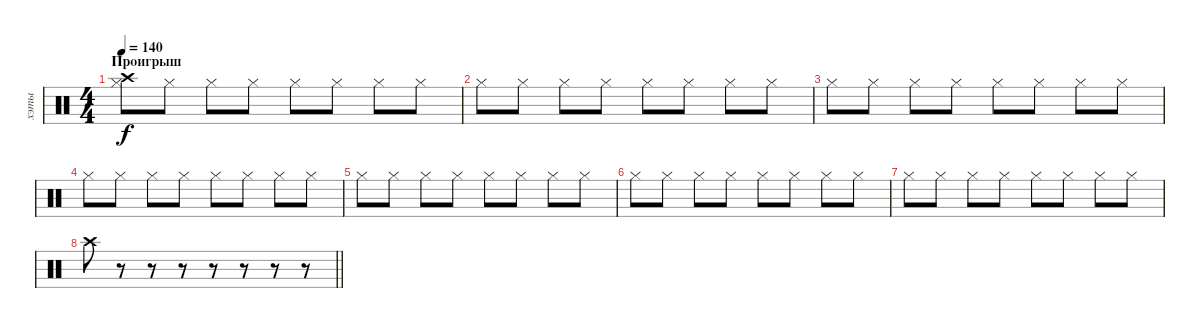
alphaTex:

\track ("хэты" "хэты") {instrument percussion}
\staff {score}
\articulation defaults
\ts (4 4)
\section ("" "Проигрыш")
\tempo 140
\clef neutral
\ks c
("Hi-Hat (closed)" "Crash high (hit)").8{dy f} "Hi-Hat (closed)".8 "Hi-Hat (closed)".8 "Hi-Hat (closed)".8 "Hi-Hat (closed)".8 "Hi-Hat (closed)".8 "Hi-Hat (closed)".8 "Hi-Hat (closed)".8 |
"Hi-Hat (closed)".8 "Hi-Hat (closed)".8 "Hi-Hat (closed)".8 "Hi-Hat (closed)".8 "Hi-Hat (closed)".8 "Hi-Hat (closed)".8 "Hi-Hat (closed)".8 "Hi-Hat (closed)".8 |
"Hi-Hat (closed)".8 "Hi-Hat (closed)".8 "Hi-Hat (closed)".8 "Hi-Hat (closed)".8 "Hi-Hat (closed)".8 "Hi-Hat (closed)".8 "Hi-Hat (closed)".8 "Hi-Hat (closed)".8 |
"Hi-Hat (closed)".8 "Hi-Hat (closed)".8 "Hi-Hat (closed)".8 "Hi-Hat (closed)".8 "Hi-Hat (closed)".8 "Hi-Hat (closed)".8 "Hi-Hat (closed)".8 "Hi-Hat (closed)".8 |
"Hi-Hat (closed)".8 "Hi-Hat (closed)".8 "Hi-Hat (closed)".8 "Hi-Hat (closed)".8 "Hi-Hat (closed)".8 "Hi-Hat (closed)".8 "Hi-Hat (closed)".8 "Hi-Hat (closed)".8 |
"Hi-Hat (closed)".8 "Hi-Hat (closed)".8 "Hi-Hat (closed)".8 "Hi-Hat (closed)".8 "Hi-Hat (closed)".8 "Hi-Hat (closed)".8 "Hi-Hat (closed)".8 "Hi-Hat (closed)".8 |
"Hi-Hat (closed)".8 "Hi-Hat (closed)".8 "Hi-Hat (closed)".8 "Hi-Hat (closed)".8 "Hi-Hat (closed)".8 "Hi-Hat (closed)".8 "Hi-Hat (closed)".8 "Hi-Hat (closed)".8 |
\barLineRight lightlight "Crash high (hit)".8
r.8 r.8 r.8 r.8 r.8 r.8 r.8
